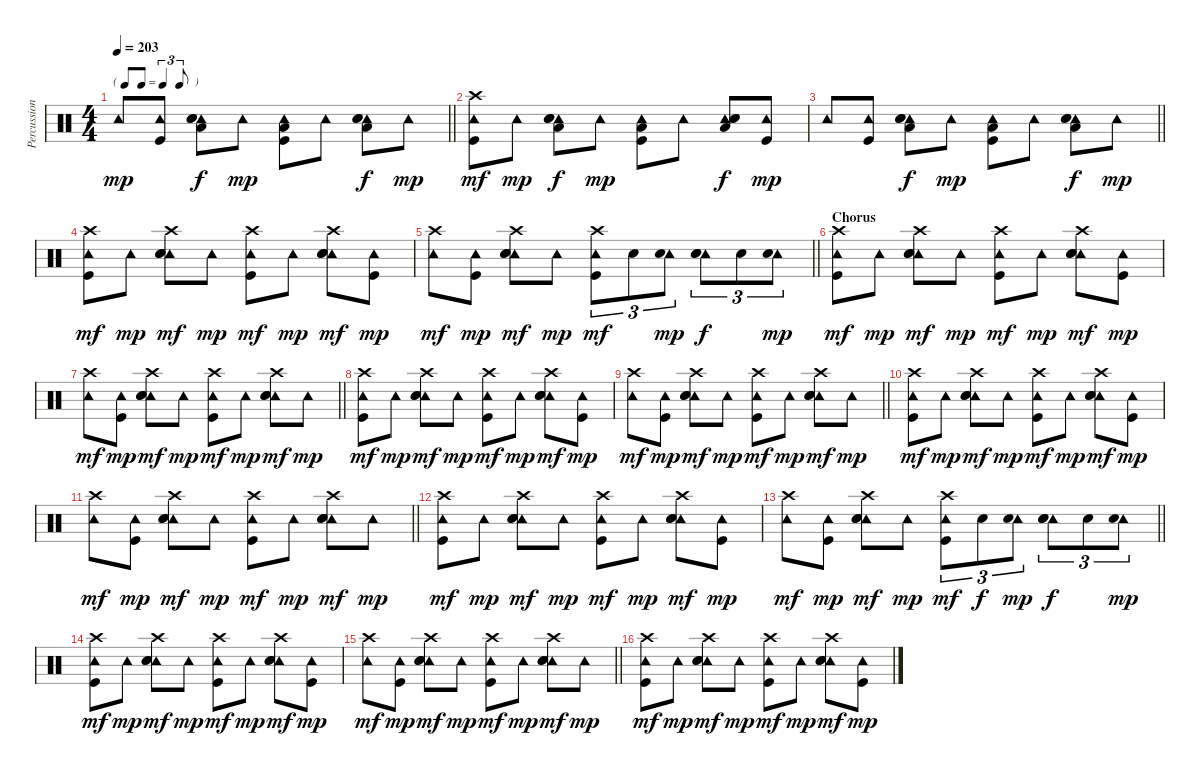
\track ("Percussion" "Percussion") {instrument percussion}
\staff {score}
\articulation defaults
\ts (4 4)
\tf triplet8th
\tempo 203
\clef neutral
\barLineRight lightlight
\ks c "Tambourine (hit)".8{dy mp}
("Tambourine (hit)" "Kick (hit)").8 ("Tambourine (hit)" "Hand Clap (hit)" "Snare (hit) 2" "Low Tom (hit)").8{dy f} "Tambourine (hit)".8{dy mp} ("Tambourine (hit)" "Low Tom (hit)" "Kick (hit)").8 "Tambourine (hit)".8 ("Tambourine (hit)" "Hand Clap (hit)" "Snare (hit) 2" "Low Tom (hit)").8{dy f} "Tambourine (hit)".8{dy mp} |
("Tambourine (hit)" "Crash high (hit)" "Kick (hit)").8{dy mf} "Tambourine (hit)".8{dy mp} ("Tambourine (hit)" "Hand Clap (hit)" "Snare (hit) 2" "Low Tom (hit)").8{dy f} "Tambourine (hit)".8{dy mp} ("Tambourine (hit)" "Low Tom (hit)" "Kick (hit)").8 "Tambourine (hit)".8 ("Tambourine (hit)" "Hand Clap (hit)" "Snare (hit) 2" "Low Tom (hit)").8{dy f} ("Tambourine (hit)" "Kick (hit)").8{dy mp} |
\barLineRight lightlight "Tambourine (hit)".8
("Tambourine (hit)" "Kick (hit)").8 ("Tambourine (hit)" "Hand Clap (hit)" "Snare (hit) 2" "Low Tom (hit)").8{dy f} "Tambourine (hit)".8{dy mp} ("Tambourine (hit)" "Low Tom (hit)" "Kick (hit)").8 "Tambourine (hit)".8 ("Tambourine (hit)" "Hand Clap (hit)" "Snare (hit) 2" "Low Tom (hit)").8{dy f} "Tambourine (hit)".8{dy mp} |
("Tambourine (hit)" "Crash high (hit)" "Kick (hit)").8{dy mf} "Tambourine (hit)".8{dy mp} ("Tambourine (hit)" "Crash high (hit)" "Hand Clap (hit)" "Snare (hit) 2").8{dy mf} "Tambourine (hit)".8{dy mp} ("Tambourine (hit)" "Crash high (hit)" "Kick (hit)").8{dy mf} "Tambourine (hit)".8{dy mp} ("Tambourine (hit)" "Crash high (hit)" "Hand Clap (hit)" "Snare (hit) 2").8{dy mf} ("Tambourine (hit)" "Kick (hit)").8{dy mp} |
\barLineRight lightlight
("Tambourine (hit)" "Crash high (hit)").8{dy mf} ("Tambourine (hit)" "Kick (hit)").8{dy mp} ("Tambourine (hit)" "Crash high (hit)" "Hand Clap (hit)" "Snare (hit) 2").8{dy mf} "Tambourine (hit)".8{dy mp} ("Tambourine (hit)" "Crash high (hit)" "Kick (hit)").8{tu (3 2) dy mf} "Snare (hit) 2".8{tu (3 2)} ("Tambourine (hit)" "Snare (hit) 2").8{tu (3 2) dy mp} ("Tambourine (hit)" "Hand Clap (hit)" "Snare (hit) 2").8{tu (3 2) dy f} "Snare (hit) 2".8{tu (3 2)} ("Tambourine (hit)" "Snare (hit) 2").8{tu (3 2) dy mp} |
\section ("" "Chorus")
("Tambourine (hit)" "Crash high (hit)" "Kick (hit)").8{dy mf} "Tambourine (hit)".8{dy mp} ("Tambourine (hit)" "Crash high (hit)" "Hand Clap (hit)" "Snare (hit) 2").8{dy mf} "Tambourine (hit)".8{dy mp} ("Tambourine (hit)" "Crash high (hit)" "Kick (hit)").8{dy mf} "Tambourine (hit)".8{dy mp} ("Tambourine (hit)" "Crash high (hit)" "Hand Clap (hit)" "Snare (hit) 2").8{dy mf} ("Tambourine (hit)" "Kick (hit)").8{dy mp} |
\barLineRight lightlight
("Tambourine (hit)" "Crash high (hit)").8{dy mf} ("Tambourine (hit)" "Kick (hit)").8{dy mp} ("Tambourine (hit)" "Crash high (hit)" "Hand Clap (hit)" "Snare (hit) 2").8{dy mf} "Tambourine (hit)".8{dy mp} ("Tambourine (hit)" "Crash high (hit)" "Kick (hit)").8{dy mf} "Tambourine (hit)".8{dy mp} ("Tambourine (hit)" "Crash high (hit)" "Hand Clap (hit)" "Snare (hit) 2").8{dy mf} "Tambourine (hit)".8{dy mp} |
("Tambourine (hit)" "Crash high (hit)" "Kick (hit)").8{dy mf} "Tambourine (hit)".8{dy mp} ("Tambourine (hit)" "Crash high (hit)" "Hand Clap (hit)" "Snare (hit) 2").8{dy mf} "Tambourine (hit)".8{dy mp} ("Tambourine (hit)" "Crash high (hit)" "Kick (hit)").8{dy mf} "Tambourine (hit)".8{dy mp} ("Tambourine (hit)" "Crash high (hit)" "Hand Clap (hit)" "Snare (hit) 2").8{dy mf} ("Tambourine (hit)" "Kick (hit)").8{dy mp} |
\barLineRight lightlight
("Tambourine (hit)" "Crash high (hit)").8{dy mf} ("Tambourine (hit)" "Kick (hit)").8{dy mp} ("Tambourine (hit)" "Crash high (hit)" "Hand Clap (hit)" "Snare (hit) 2").8{dy mf} "Tambourine (hit)".8{dy mp} ("Tambourine (hit)" "Crash high (hit)" "Kick (hit)").8{dy mf} "Tambourine (hit)".8{dy mp} ("Tambourine (hit)" "Crash high (hit)" "Hand Clap (hit)" "Snare (hit) 2").8{dy mf} "Tambourine (hit)".8{dy mp} |
("Tambourine (hit)" "Crash high (hit)" "Kick (hit)").8{dy mf} "Tambourine (hit)".8{dy mp} ("Tambourine (hit)" "Crash high (hit)" "Hand Clap (hit)" "Snare (hit) 2").8{dy mf} "Tambourine (hit)".8{dy mp} ("Tambourine (hit)" "Crash high (hit)" "Kick (hit)").8{dy mf} "Tambourine (hit)".8{dy mp} ("Tambourine (hit)" "Crash high (hit)" "Hand Clap (hit)" "Snare (hit) 2").8{dy mf} ("Tambourine (hit)" "Kick (hit)").8{dy mp} |
\barLineRight lightlight
("Tambourine (hit)" "Crash high (hit)").8{dy mf} ("Tambourine (hit)" "Kick (hit)").8{dy mp} ("Tambourine (hit)" "Crash high (hit)" "Hand Clap (hit)" "Snare (hit) 2").8{dy mf} "Tambourine (hit)".8{dy mp} ("Tambourine (hit)" "Crash high (hit)" "Kick (hit)").8{dy mf} "Tambourine (hit)".8{dy mp} ("Tambourine (hit)" "Crash high (hit)" "Hand Clap (hit)" "Snare (hit) 2").8{dy mf} "Tambourine (hit)".8{dy mp} |
("Tambourine (hit)" "Crash high (hit)" "Kick (hit)").8{dy mf} "Tambourine (hit)".8{dy mp} ("Tambourine (hit)" "Crash high (hit)" "Hand Clap (hit)" "Snare (hit) 2").8{dy mf} "Tambourine (hit)".8{dy mp} ("Tambourine (hit)" "Crash high (hit)" "Kick (hit)").8{dy mf} "Tambourine (hit)".8{dy mp} ("Tambourine (hit)" "Crash high (hit)" "Hand Clap (hit)" "Snare (hit) 2").8{dy mf} ("Tambourine (hit)" "Kick (hit)").8{dy mp} |
\barLineRight lightlight
("Tambourine (hit)" "Crash high (hit)").8{dy mf} ("Tambourine (hit)" "Kick (hit)").8{dy mp} ("Tambourine (hit)" "Crash high (hit)" "Hand Clap (hit)" "Snare (hit) 2").8{dy mf} "Tambourine (hit)".8{dy mp} ("Tambourine (hit)" "Crash high (hit)" "Kick (hit)").8{tu (3 2) dy mf} "Snare (hit) 2".8{tu (3 2) dy f} ("Tambourine (hit)" "Snare (hit) 2").8{tu (3 2) dy mp} ("Tambourine (hit)" "Hand Clap (hit)" "Snare (hit) 2").8{tu (3 2) dy f} "Snare (hit) 2".8{tu (3 2)} ("Tambourine (hit)" "Snare (hit) 2").8{tu (3 2) dy mp} |
("Tambourine (hit)" "Crash high (hit)" "Kick (hit)").8{dy mf} "Tambourine (hit)".8{dy mp} ("Tambourine (hit)" "Crash high (hit)" "Hand Clap (hit)" "Snare (hit) 2").8{dy mf} "Tambourine (hit)".8{dy mp} ("Tambourine (hit)" "Crash high (hit)" "Kick (hit)").8{dy mf} "Tambourine (hit)".8{dy mp} ("Tambourine (hit)" "Crash high (hit)" "Hand Clap (hit)" "Snare (hit) 2").8{dy mf} ("Tambourine (hit)" "Kick (hit)").8{dy mp} |
\barLineRight lightlight
("Tambourine (hit)" "Crash high (hit)").8{dy mf} ("Tambourine (hit)" "Kick (hit)").8{dy mp} ("Tambourine (hit)" "Crash high (hit)" "Hand Clap (hit)" "Snare (hit) 2").8{dy mf} "Tambourine (hit)".8{dy mp} ("Tambourine (hit)" "Crash high (hit)" "Kick (hit)").8{dy mf} "Tambourine (hit)".8{dy mp} ("Tambourine (hit)" "Crash high (hit)" "Hand Clap (hit)" "Snare (hit) 2").8{dy mf} "Tambourine (hit)".8{dy mp} |
("Tambourine (hit)" "Crash high (hit)" "Kick (hit)").8{dy mf} "Tambourine (hit)".8{dy mp} ("Tambourine (hit)" "Crash high (hit)" "Hand Clap (hit)" "Snare (hit) 2").8{dy mf} "Tambourine (hit)".8{dy mp} ("Tambourine (hit)" "Crash high (hit)" "Kick (hit)").8{dy mf} "Tambourine (hit)".8{dy mp} ("Tambourine (hit)" "Crash high (hit)" "Hand Clap (hit)" "Snare (hit) 2").8{dy mf} ("Tambourine (hit)" "Kick (hit)").8{dy mp}
